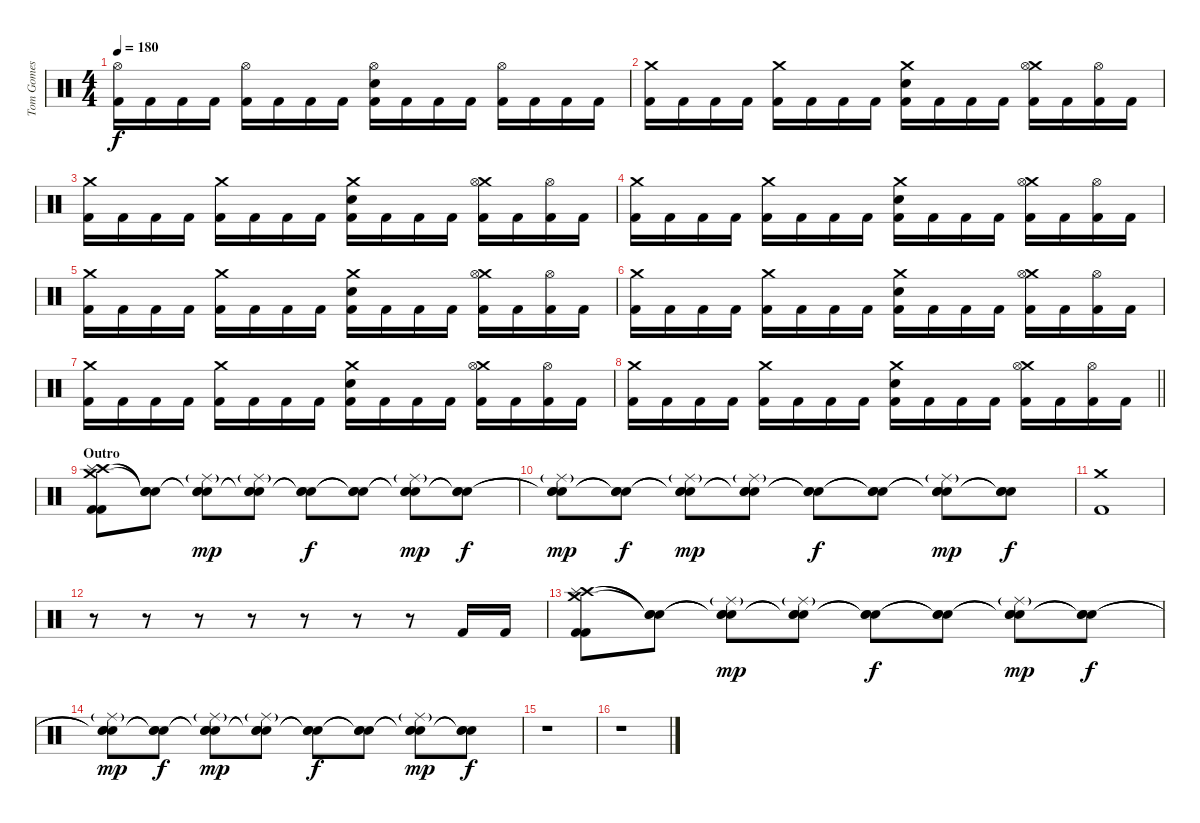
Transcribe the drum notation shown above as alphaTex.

\track ("Tom Gomes" "Tom Gomes") {instrument percussion}
\staff {score}
\articulation defaults
\ts (4 4)
\tempo 180
\clef neutral
\ks c
("Hi-Hat (open)" "Kick (hit) 2").16{dy f} "Kick (hit) 2".16 "Kick (hit) 2".16 "Kick (hit) 2".16 ("Hi-Hat (open)" "Kick (hit) 2").16 "Kick (hit) 2".16 "Kick (hit) 2".16 "Kick (hit) 2".16 ("Hi-Hat (open)" "Snare (hit) 2" "Kick (hit) 2").16 "Kick (hit) 2".16 "Kick (hit) 2".16 "Kick (hit) 2".16 ("Hi-Hat (open)" "Kick (hit) 2").16 "Kick (hit) 2".16 "Kick (hit) 2".16 "Kick (hit) 2".16 |
("Crash medium (hit)" "Kick (hit) 2").16 "Kick (hit) 2".16 "Kick (hit) 2".16 "Kick (hit) 2".16 ("Crash medium (hit)" "Kick (hit) 2").16 "Kick (hit) 2".16 "Kick (hit) 2".16 "Kick (hit) 2".16 ("Crash medium (hit)" "Snare (hit) 2" "Kick (hit) 2").16 "Kick (hit) 2".16 "Kick (hit) 2".16 "Kick (hit) 2".16 ("Crash medium (hit)" "Hi-Hat (open)" "Kick (hit) 2").16 "Kick (hit) 2".16 ("Hi-Hat (open)" "Kick (hit) 2").16 "Kick (hit) 2".16 |
("Crash medium (hit)" "Kick (hit) 2").16 "Kick (hit) 2".16 "Kick (hit) 2".16 "Kick (hit) 2".16 ("Crash medium (hit)" "Kick (hit) 2").16 "Kick (hit) 2".16 "Kick (hit) 2".16 "Kick (hit) 2".16 ("Crash medium (hit)" "Snare (hit) 2" "Kick (hit) 2").16 "Kick (hit) 2".16 "Kick (hit) 2".16 "Kick (hit) 2".16 ("Crash medium (hit)" "Hi-Hat (open)" "Kick (hit) 2").16 "Kick (hit) 2".16 ("Hi-Hat (open)" "Kick (hit) 2").16 "Kick (hit) 2".16 |
("Crash medium (hit)" "Kick (hit) 2").16 "Kick (hit) 2".16 "Kick (hit) 2".16 "Kick (hit) 2".16 ("Crash medium (hit)" "Kick (hit) 2").16 "Kick (hit) 2".16 "Kick (hit) 2".16 "Kick (hit) 2".16 ("Crash medium (hit)" "Snare (hit) 2" "Kick (hit) 2").16 "Kick (hit) 2".16 "Kick (hit) 2".16 "Kick (hit) 2".16 ("Crash medium (hit)" "Hi-Hat (open)" "Kick (hit) 2").16 "Kick (hit) 2".16 ("Hi-Hat (open)" "Kick (hit) 2").16 "Kick (hit) 2".16 |
("Crash medium (hit)" "Kick (hit) 2").16 "Kick (hit) 2".16 "Kick (hit) 2".16 "Kick (hit) 2".16 ("Crash medium (hit)" "Kick (hit) 2").16 "Kick (hit) 2".16 "Kick (hit) 2".16 "Kick (hit) 2".16 ("Crash medium (hit)" "Snare (hit) 2" "Kick (hit) 2").16 "Kick (hit) 2".16 "Kick (hit) 2".16 "Kick (hit) 2".16 ("Crash medium (hit)" "Hi-Hat (open)" "Kick (hit) 2").16 "Kick (hit) 2".16 ("Hi-Hat (open)" "Kick (hit) 2").16 "Kick (hit) 2".16 |
("Crash medium (hit)" "Kick (hit) 2").16 "Kick (hit) 2".16 "Kick (hit) 2".16 "Kick (hit) 2".16 ("Crash medium (hit)" "Kick (hit) 2").16 "Kick (hit) 2".16 "Kick (hit) 2".16 "Kick (hit) 2".16 ("Crash medium (hit)" "Snare (hit) 2" "Kick (hit) 2").16 "Kick (hit) 2".16 "Kick (hit) 2".16 "Kick (hit) 2".16 ("Crash medium (hit)" "Hi-Hat (open)" "Kick (hit) 2").16 "Kick (hit) 2".16 ("Hi-Hat (open)" "Kick (hit) 2").16 "Kick (hit) 2".16 |
("Crash medium (hit)" "Kick (hit) 2").16 "Kick (hit) 2".16 "Kick (hit) 2".16 "Kick (hit) 2".16 ("Crash medium (hit)" "Kick (hit) 2").16 "Kick (hit) 2".16 "Kick (hit) 2".16 "Kick (hit) 2".16 ("Crash medium (hit)" "Snare (hit) 2" "Kick (hit) 2").16 "Kick (hit) 2".16 "Kick (hit) 2".16 "Kick (hit) 2".16 ("Crash medium (hit)" "Hi-Hat (open)" "Kick (hit) 2").16 "Kick (hit) 2".16 ("Hi-Hat (open)" "Kick (hit) 2").16 "Kick (hit) 2".16 |
\barLineRight lightlight
("Crash medium (hit)" "Kick (hit) 2").16 "Kick (hit) 2".16 "Kick (hit) 2".16 "Kick (hit) 2".16 ("Crash medium (hit)" "Kick (hit) 2").16 "Kick (hit) 2".16 "Kick (hit) 2".16 "Kick (hit) 2".16 ("Crash medium (hit)" "Snare (hit) 2" "Kick (hit) 2").16 "Kick (hit) 2".16 "Kick (hit) 2".16 "Kick (hit) 2".16 ("Crash medium (hit)" "Hi-Hat (open)" "Kick (hit) 2").16 "Kick (hit) 2".16 ("Hi-Hat (open)" "Kick (hit) 2").16 "Kick (hit) 2".16 |
\section ("" "Outro")
("Crash high (hit)" "Splash (hit)" "Crash medium (hit)" "Kick (hit) 2" "Kick (hit) 2").8 ("Snare (hit)"{t} "Snare (hit)"{t} "Snare (hit)"{t}).8 ("Snare (hit)"{t} "Snare (hit)"{t} "Snare (hit)"{t} "Ride (middle)"{g}).8{dy mp} ("Snare (hit)"{t} "Snare (hit)"{t} "Snare (hit)"{t} "Ride (middle)"{g}).8 ("Snare (hit)"{t} "Snare (hit)"{t} "Snare (hit)"{t}).8{dy f} ("Snare (hit)"{t} "Snare (hit)"{t} "Snare (hit)"{t}).8 ("Snare (hit)"{t} "Snare (hit)"{t} "Snare (hit)"{t} "Ride (middle)"{g}).8{dy mp} ("Snare (hit)"{t} "Snare (hit)"{t} "Snare (hit)"{t}).8{dy f} |
("Snare (hit)"{t} "Snare (hit)"{t} "Snare (hit)"{t} "Ride (middle)"{g}).8{dy mp} ("Snare (hit)"{t} "Snare (hit)"{t} "Snare (hit)"{t}).8{dy f} ("Snare (hit)"{t} "Snare (hit)"{t} "Snare (hit)"{t} "Ride (middle)"{g}).8{dy mp} ("Snare (hit)"{t} "Snare (hit)"{t} "Snare (hit)"{t} "Ride (middle)"{g}).8 ("Snare (hit)"{t} "Snare (hit)"{t} "Snare (hit)"{t}).8{dy f} ("Snare (hit)"{t} "Snare (hit)"{t} "Snare (hit)"{t}).8 ("Snare (hit)"{t} "Snare (hit)"{t} "Snare (hit)"{t} "Ride (middle)"{g}).8{dy mp} ("Snare (hit)"{t} "Snare (hit)"{t} "Snare (hit)"{t}).8{dy f} |
("Crash medium (hit)" "Kick (hit) 2").1 |
r.8 r.8 r.8 r.8 r.8 r.8 r.8 "Kick (hit) 2".16 "Kick (hit) 2".16 |
("Crash high (hit)" "Splash (hit)" "Crash medium (hit)" "Kick (hit) 2" "Kick (hit) 2").8 ("Snare (hit)"{t} "Snare (hit)"{t} "Snare (hit)"{t}).8 ("Snare (hit)"{t} "Snare (hit)"{t} "Snare (hit)"{t} "Ride (middle)"{g}).8{dy mp} ("Snare (hit)"{t} "Snare (hit)"{t} "Snare (hit)"{t} "Ride (middle)"{g}).8 ("Snare (hit)"{t} "Snare (hit)"{t} "Snare (hit)"{t}).8{dy f} ("Snare (hit)"{t} "Snare (hit)"{t} "Snare (hit)"{t}).8 ("Snare (hit)"{t} "Snare (hit)"{t} "Snare (hit)"{t} "Ride (middle)"{g}).8{dy mp} ("Snare (hit)"{t} "Snare (hit)"{t} "Snare (hit)"{t}).8{dy f} |
("Snare (hit)"{t} "Snare (hit)"{t} "Snare (hit)"{t} "Ride (middle)"{g}).8{dy mp} ("Snare (hit)"{t} "Snare (hit)"{t} "Snare (hit)"{t}).8{dy f} ("Snare (hit)"{t} "Snare (hit)"{t} "Snare (hit)"{t} "Ride (middle)"{g}).8{dy mp} ("Snare (hit)"{t} "Snare (hit)"{t} "Snare (hit)"{t} "Ride (middle)"{g}).8 ("Snare (hit)"{t} "Snare (hit)"{t} "Snare (hit)"{t}).8{dy f} ("Snare (hit)"{t} "Snare (hit)"{t} "Snare (hit)"{t}).8 ("Snare (hit)"{t} "Snare (hit)"{t} "Snare (hit)"{t} "Ride (middle)"{g}).8{dy mp} ("Snare (hit)"{t} "Snare (hit)"{t} "Snare (hit)"{t}).8{dy f} |
r.1 |
r.1
